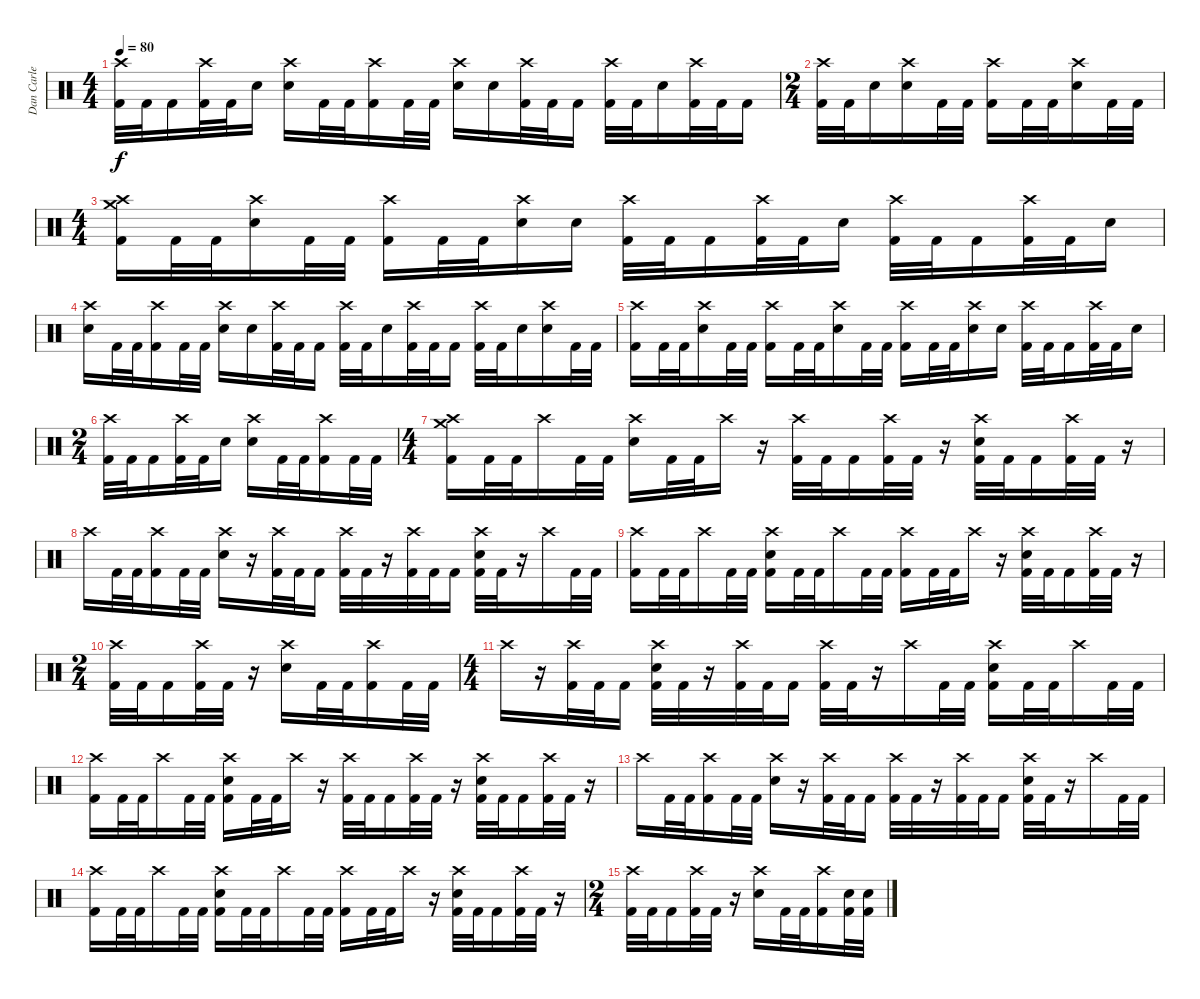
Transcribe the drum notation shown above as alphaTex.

\track ("Dan Carle" "Dan Carle") {instrument percussion}
\staff {score}
\articulation defaults
\ts (4 4)
\tempo 80
\clef neutral
\ks c
("Crash high (hit)" "Kick (hit) 2").32{dy f} "Kick (hit) 2".32 "Kick (hit) 2".16 ("Crash high (hit)" "Kick (hit) 2").32 "Kick (hit) 2".32 "Snare (hit) 2".16 ("Crash high (hit)" "Snare (hit) 2").16 "Kick (hit) 2".32 "Kick (hit) 2".32 ("Crash high (hit)" "Kick (hit) 2").16 "Kick (hit) 2".32 "Kick (hit) 2".32 ("Crash high (hit)" "Snare (hit) 2").16 "Snare (hit) 2".16 ("Crash high (hit)" "Kick (hit) 2").32 "Kick (hit) 2".32 "Kick (hit) 2".16 ("Crash high (hit)" "Kick (hit) 2").32 "Kick (hit) 2".32 "Snare (hit) 2".16 ("Crash high (hit)" "Kick (hit) 2").32 "Kick (hit) 2".32 "Kick (hit) 2".16 |
\ts (2 4)
("Crash high (hit)" "Kick (hit) 2").32 "Kick (hit) 2".32 "Snare (hit) 2".16 ("Crash high (hit)" "Snare (hit) 2").16 "Kick (hit) 2".32 "Kick (hit) 2".32 ("Crash high (hit)" "Kick (hit) 2").16 "Kick (hit) 2".32 "Kick (hit) 2".32 ("Crash high (hit)" "Snare (hit) 2").16 "Kick (hit) 2".32 "Kick (hit) 2".32 |
\ts (4 4)
("Crash medium (hit)" "Crash high (hit)" "Kick (hit) 2").16 "Kick (hit) 2".32 "Kick (hit) 2".32 ("Crash high (hit)" "Snare (hit) 2").16 "Kick (hit) 2".32 "Kick (hit) 2".32 ("Crash high (hit)" "Kick (hit) 2").16 "Kick (hit) 2".32 "Kick (hit) 2".32 ("Crash high (hit)" "Snare (hit) 2").16 "Snare (hit) 2".16 ("Crash high (hit)" "Kick (hit) 2").32 "Kick (hit) 2".32 "Kick (hit) 2".16 ("Crash high (hit)" "Kick (hit) 2").32 "Kick (hit) 2".32 "Snare (hit) 2".16 ("Crash high (hit)" "Kick (hit) 2").32 "Kick (hit) 2".32 "Kick (hit) 2".16 ("Crash high (hit)" "Kick (hit) 2").32 "Kick (hit) 2".32 "Snare (hit) 2".16 |
("Crash high (hit)" "Snare (hit) 2").16 "Kick (hit) 2".32 "Kick (hit) 2".32 ("Crash high (hit)" "Kick (hit) 2").16 "Kick (hit) 2".32 "Kick (hit) 2".32 ("Crash high (hit)" "Snare (hit) 2").16 "Snare (hit) 2".16 ("Crash high (hit)" "Kick (hit) 2").32 "Kick (hit) 2".32 "Kick (hit) 2".16 ("Crash high (hit)" "Kick (hit) 2").32 "Kick (hit) 2".32 "Snare (hit) 2".16 ("Crash high (hit)" "Kick (hit) 2").32 "Kick (hit) 2".32 "Kick (hit) 2".16 ("Crash high (hit)" "Kick (hit) 2").32 "Kick (hit) 2".32 "Snare (hit) 2".16 ("Crash high (hit)" "Snare (hit) 2").16 "Kick (hit) 2".32 "Kick (hit) 2".32 |
("Crash high (hit)" "Kick (hit) 2").16 "Kick (hit) 2".32 "Kick (hit) 2".32 ("Crash high (hit)" "Snare (hit) 2").16 "Kick (hit) 2".32 "Kick (hit) 2".32 ("Crash high (hit)" "Kick (hit) 2").16 "Kick (hit) 2".32 "Kick (hit) 2".32 ("Crash high (hit)" "Snare (hit) 2").16 "Kick (hit) 2".32 "Kick (hit) 2".32 ("Crash high (hit)" "Kick (hit) 2").16 "Kick (hit) 2".32 "Kick (hit) 2".32 ("Crash high (hit)" "Snare (hit) 2").16 "Snare (hit) 2".16 ("Crash high (hit)" "Kick (hit) 2").32 "Kick (hit) 2".32 "Kick (hit) 2".16 ("Crash high (hit)" "Kick (hit) 2").32 "Kick (hit) 2".32 "Snare (hit) 2".16 |
\ts (2 4)
("Crash high (hit)" "Kick (hit) 2").32 "Kick (hit) 2".32 "Kick (hit) 2".16 ("Crash high (hit)" "Kick (hit) 2").32 "Kick (hit) 2".32 "Snare (hit) 2".16 ("Crash high (hit)" "Snare (hit) 2").16 "Kick (hit) 2".32 "Kick (hit) 2".32 ("Crash high (hit)" "Kick (hit) 2").16 "Kick (hit) 2".32 "Kick (hit) 2".32 |
\ts (4 4)
("Crash medium (hit)" "Crash high (hit)" "Kick (hit) 2").16 "Kick (hit) 2".32 "Kick (hit) 2".32 "Crash high (hit)".16 "Kick (hit) 2".32 "Kick (hit) 2".32 ("Crash high (hit)" "Snare (hit) 2").16 "Kick (hit) 2".32 "Kick (hit) 2".32 "Crash high (hit)".16 r.16 ("Crash high (hit)" "Kick (hit) 2").32 "Kick (hit) 2".32 "Kick (hit) 2".16 ("Crash high (hit)" "Kick (hit) 2").32 "Kick (hit) 2".32 r.16 ("Crash high (hit)" "Snare (hit) 2" "Kick (hit) 2").32 "Kick (hit) 2".32 "Kick (hit) 2".16 ("Crash high (hit)" "Kick (hit) 2").32 "Kick (hit) 2".32 r.16 |
"Crash high (hit)".16 "Kick (hit) 2".32 "Kick (hit) 2".32 ("Crash high (hit)" "Kick (hit) 2").16 "Kick (hit) 2".32 "Kick (hit) 2".32 ("Crash high (hit)" "Snare (hit) 2").16 r.16 ("Crash high (hit)" "Kick (hit) 2").32 "Kick (hit) 2".32 "Kick (hit) 2".16 ("Crash high (hit)" "Kick (hit) 2").32 "Kick (hit) 2".32 r.16 ("Crash high (hit)" "Kick (hit) 2").32 "Kick (hit) 2".32 "Kick (hit) 2".16 ("Crash high (hit)" "Snare (hit) 2" "Kick (hit) 2").32 "Kick (hit) 2".32 r.16 "Crash high (hit)".16 "Kick (hit) 2".32 "Kick (hit) 2".32 |
("Crash high (hit)" "Kick (hit) 2").16 "Kick (hit) 2".32 "Kick (hit) 2".32 "Crash high (hit)".16 "Kick (hit) 2".32 "Kick (hit) 2".32 ("Crash high (hit)" "Snare (hit) 2" "Kick (hit) 2").16 "Kick (hit) 2".32 "Kick (hit) 2".32 "Crash high (hit)".16 "Kick (hit) 2".32 "Kick (hit) 2".32 ("Crash high (hit)" "Kick (hit) 2").16 "Kick (hit) 2".32 "Kick (hit) 2".32 "Crash high (hit)".16 r.16 ("Crash high (hit)" "Snare (hit) 2" "Kick (hit) 2").32 "Kick (hit) 2".32 "Kick (hit) 2".16 ("Crash high (hit)" "Kick (hit) 2").32 "Kick (hit) 2".32 r.16 |
\ts (2 4)
("Crash high (hit)" "Kick (hit) 2").32 "Kick (hit) 2".32 "Kick (hit) 2".16 ("Crash high (hit)" "Kick (hit) 2").32 "Kick (hit) 2".32 r.16 ("Crash high (hit)" "Snare (hit) 2").16 "Kick (hit) 2".32 "Kick (hit) 2".32 ("Crash high (hit)" "Kick (hit) 2").16 "Kick (hit) 2".32 "Kick (hit) 2".32 |
\ts (4 4)
"Crash high (hit)".16 r.16 ("Crash high (hit)" "Kick (hit) 2").32 "Kick (hit) 2".32 "Kick (hit) 2".16 ("Crash high (hit)" "Snare (hit) 2" "Kick (hit) 2").32 "Kick (hit) 2".32 r.16 ("Crash high (hit)" "Kick (hit) 2").32 "Kick (hit) 2".32 "Kick (hit) 2".16 ("Crash high (hit)" "Kick (hit) 2").32 "Kick (hit) 2".32 r.16 "Crash high (hit)".16 "Kick (hit) 2".32 "Kick (hit) 2".32 ("Crash high (hit)" "Snare (hit) 2" "Kick (hit) 2").16 "Kick (hit) 2".32 "Kick (hit) 2".32 "Crash high (hit)".16 "Kick (hit) 2".32 "Kick (hit) 2".32 |
("Crash high (hit)" "Kick (hit) 2").16 "Kick (hit) 2".32 "Kick (hit) 2".32 "Crash high (hit)".16 "Kick (hit) 2".32 "Kick (hit) 2".32 ("Crash high (hit)" "Snare (hit) 2" "Kick (hit) 2").16 "Kick (hit) 2".32 "Kick (hit) 2".32 "Crash high (hit)".16 r.16 ("Crash high (hit)" "Kick (hit) 2").32 "Kick (hit) 2".32 "Kick (hit) 2".16 ("Crash high (hit)" "Kick (hit) 2").32 "Kick (hit) 2".32 r.16 ("Crash high (hit)" "Snare (hit) 2" "Kick (hit) 2").32 "Kick (hit) 2".32 "Kick (hit) 2".16 ("Crash high (hit)" "Kick (hit) 2").32 "Kick (hit) 2".32 r.16 |
"Crash high (hit)".16 "Kick (hit) 2".32 "Kick (hit) 2".32 ("Crash high (hit)" "Kick (hit) 2").16 "Kick (hit) 2".32 "Kick (hit) 2".32 ("Crash high (hit)" "Snare (hit) 2").16 r.16 ("Crash high (hit)" "Kick (hit) 2").32 "Kick (hit) 2".32 "Kick (hit) 2".16 ("Crash high (hit)" "Kick (hit) 2").32 "Kick (hit) 2".32 r.16 ("Crash high (hit)" "Kick (hit) 2").32 "Kick (hit) 2".32 "Kick (hit) 2".16 ("Crash high (hit)" "Snare (hit) 2" "Kick (hit) 2").32 "Kick (hit) 2".32 r.16 "Crash high (hit)".16 "Kick (hit) 2".32 "Kick (hit) 2".32 |
("Crash high (hit)" "Kick (hit) 2").16 "Kick (hit) 2".32 "Kick (hit) 2".32 "Crash high (hit)".16 "Kick (hit) 2".32 "Kick (hit) 2".32 ("Crash high (hit)" "Snare (hit) 2" "Kick (hit) 2").16 "Kick (hit) 2".32 "Kick (hit) 2".32 "Crash high (hit)".16 "Kick (hit) 2".32 "Kick (hit) 2".32 ("Crash high (hit)" "Kick (hit) 2").16 "Kick (hit) 2".32 "Kick (hit) 2".32 "Crash high (hit)".16 r.16 ("Crash high (hit)" "Snare (hit) 2" "Kick (hit) 2").32 "Kick (hit) 2".32 "Kick (hit) 2".16 ("Crash high (hit)" "Kick (hit) 2").32 "Kick (hit) 2".32 r.16 |
\ts (2 4)
("Crash high (hit)" "Kick (hit) 2").32 "Kick (hit) 2".32 "Kick (hit) 2".16 ("Crash high (hit)" "Kick (hit) 2").32 "Kick (hit) 2".32 r.16 ("Crash high (hit)" "Snare (hit) 2").16 "Kick (hit) 2".32 "Kick (hit) 2".32 ("Crash high (hit)" "Kick (hit) 2").16 ("Snare (hit) 2" "Kick (hit) 2").32 ("Snare (hit) 2" "Kick (hit) 2").32
